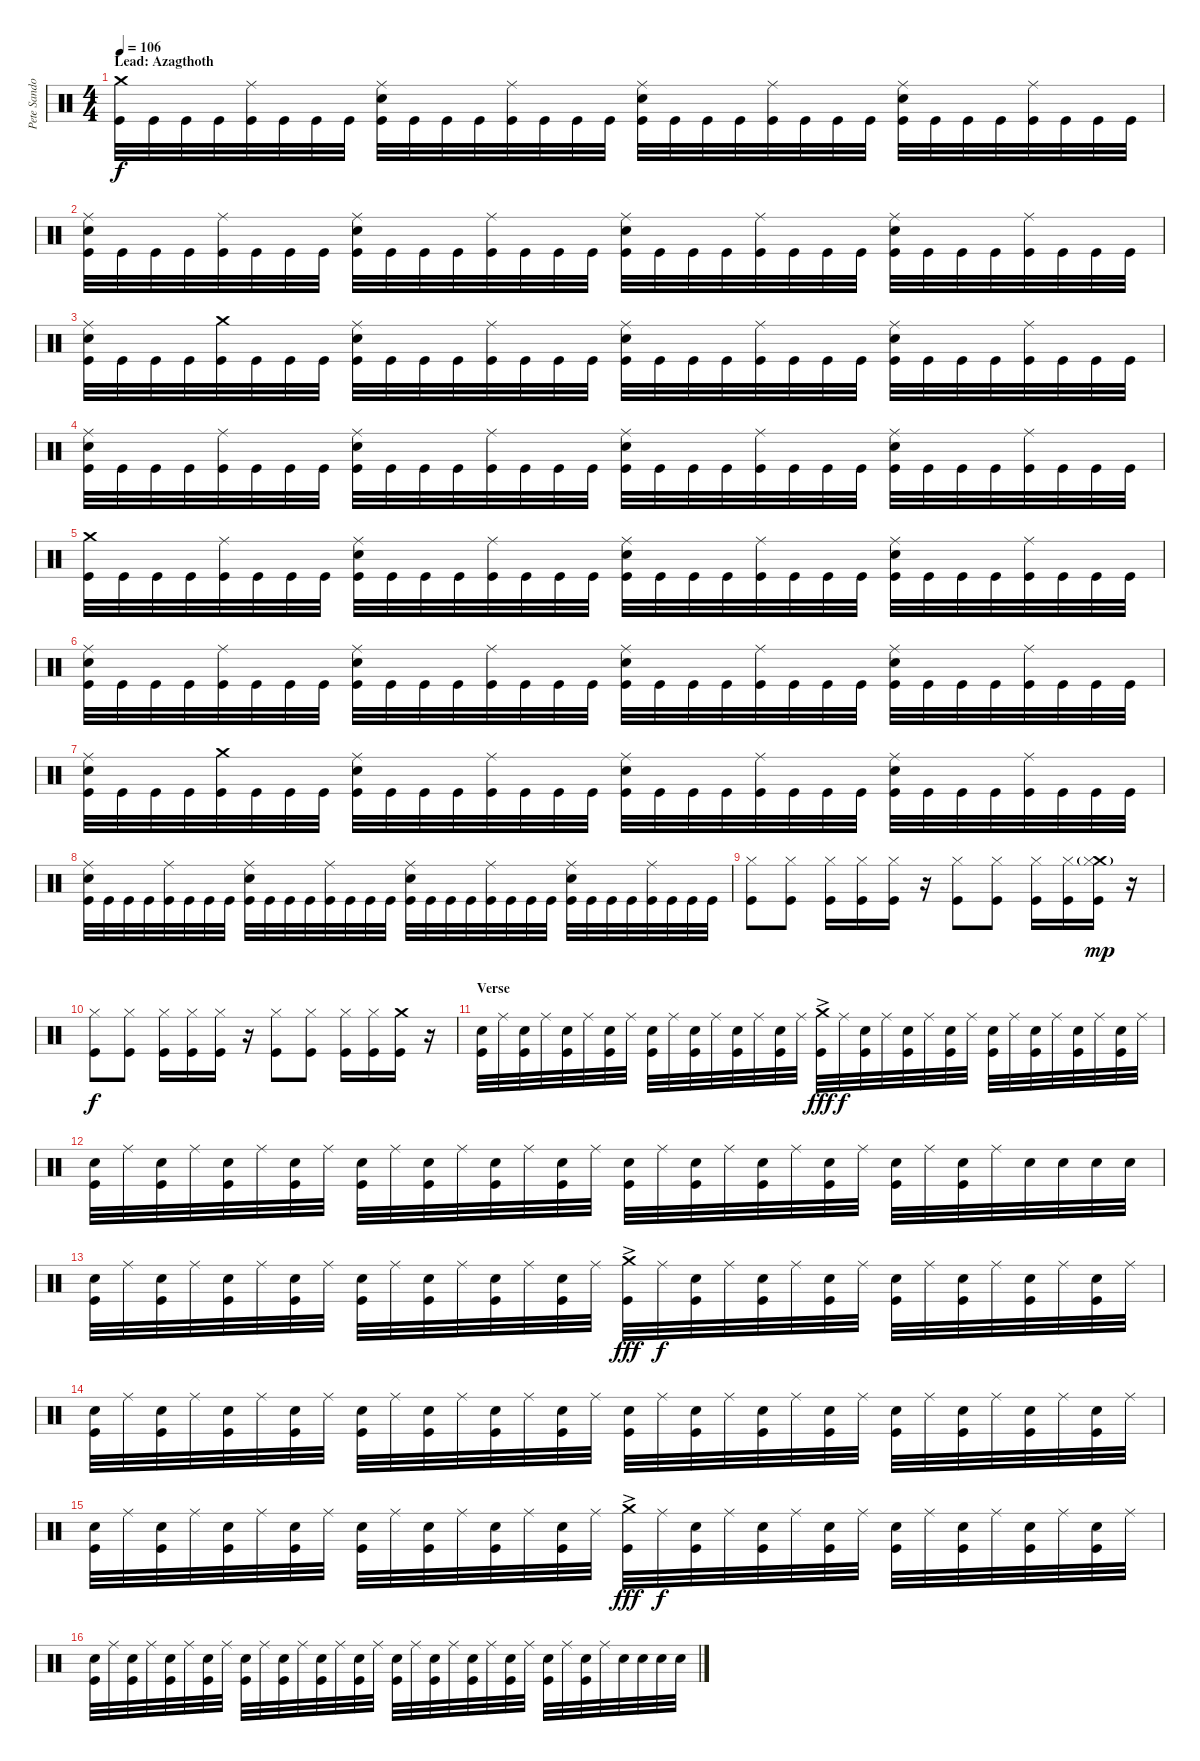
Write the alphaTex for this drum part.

\track ("Pete Sandoval" "Pete Sando") {instrument percussion}
\staff {score}
\articulation defaults
\ts (4 4)
\section ("" "Lead: Azagthoth")
\tempo 106
\clef neutral
\ks c
("Crash medium (hit)" "Kick (hit)").32{dy f} "Kick (hit)".32 "Kick (hit)".32 "Kick (hit)".32 ("Ride (middle)" "Kick (hit)").32 "Kick (hit)".32 "Kick (hit)".32 "Kick (hit)".32 ("Ride (middle)" "Electric Snare (hit)" "Kick (hit)").32 "Kick (hit)".32 "Kick (hit)".32 "Kick (hit)".32 ("Ride (middle)" "Kick (hit)").32 "Kick (hit)".32 "Kick (hit)".32 "Kick (hit)".32 ("Ride (middle)" "Electric Snare (hit)" "Kick (hit)").32 "Kick (hit)".32 "Kick (hit)".32 "Kick (hit)".32 ("Ride (middle)" "Kick (hit)").32 "Kick (hit)".32 "Kick (hit)".32 "Kick (hit)".32 ("Ride (middle)" "Electric Snare (hit)" "Kick (hit)").32 "Kick (hit)".32 "Kick (hit)".32 "Kick (hit)".32 ("Ride (middle)" "Kick (hit)").32 "Kick (hit)".32 "Kick (hit)".32 "Kick (hit)".32 |
("Ride (middle)" "Electric Snare (hit)" "Kick (hit)").32 "Kick (hit)".32 "Kick (hit)".32 "Kick (hit)".32 ("Ride (middle)" "Kick (hit)").32 "Kick (hit)".32 "Kick (hit)".32 "Kick (hit)".32 ("Ride (middle)" "Electric Snare (hit)" "Kick (hit)").32 "Kick (hit)".32 "Kick (hit)".32 "Kick (hit)".32 ("Ride (middle)" "Kick (hit)").32 "Kick (hit)".32 "Kick (hit)".32 "Kick (hit)".32 ("Ride (middle)" "Electric Snare (hit)" "Kick (hit)").32 "Kick (hit)".32 "Kick (hit)".32 "Kick (hit)".32 ("Ride (middle)" "Kick (hit)").32 "Kick (hit)".32 "Kick (hit)".32 "Kick (hit)".32 ("Ride (middle)" "Electric Snare (hit)" "Kick (hit)").32 "Kick (hit)".32 "Kick (hit)".32 "Kick (hit)".32 ("Ride (middle)" "Kick (hit)").32 "Kick (hit)".32 "Kick (hit)".32 "Kick (hit)".32 |
("Ride (middle)" "Electric Snare (hit)" "Kick (hit)").32 "Kick (hit)".32 "Kick (hit)".32 "Kick (hit)".32 ("Crash medium (hit)" "Kick (hit)").32 "Kick (hit)".32 "Kick (hit)".32 "Kick (hit)".32 ("Ride (middle)" "Electric Snare (hit)" "Kick (hit)").32 "Kick (hit)".32 "Kick (hit)".32 "Kick (hit)".32 ("Ride (middle)" "Kick (hit)").32 "Kick (hit)".32 "Kick (hit)".32 "Kick (hit)".32 ("Ride (middle)" "Electric Snare (hit)" "Kick (hit)").32 "Kick (hit)".32 "Kick (hit)".32 "Kick (hit)".32 ("Ride (middle)" "Kick (hit)").32 "Kick (hit)".32 "Kick (hit)".32 "Kick (hit)".32 ("Ride (middle)" "Electric Snare (hit)" "Kick (hit)").32 "Kick (hit)".32 "Kick (hit)".32 "Kick (hit)".32 ("Ride (middle)" "Kick (hit)").32 "Kick (hit)".32 "Kick (hit)".32 "Kick (hit)".32 |
("Ride (middle)" "Electric Snare (hit)" "Kick (hit)").32 "Kick (hit)".32 "Kick (hit)".32 "Kick (hit)".32 ("Ride (middle)" "Kick (hit)").32 "Kick (hit)".32 "Kick (hit)".32 "Kick (hit)".32 ("Ride (middle)" "Electric Snare (hit)" "Kick (hit)").32 "Kick (hit)".32 "Kick (hit)".32 "Kick (hit)".32 ("Ride (middle)" "Kick (hit)").32 "Kick (hit)".32 "Kick (hit)".32 "Kick (hit)".32 ("Ride (middle)" "Electric Snare (hit)" "Kick (hit)").32 "Kick (hit)".32 "Kick (hit)".32 "Kick (hit)".32 ("Ride (middle)" "Kick (hit)").32 "Kick (hit)".32 "Kick (hit)".32 "Kick (hit)".32 ("Ride (middle)" "Electric Snare (hit)" "Kick (hit)").32 "Kick (hit)".32 "Kick (hit)".32 "Kick (hit)".32 ("Ride (middle)" "Kick (hit)").32 "Kick (hit)".32 "Kick (hit)".32 "Kick (hit)".32 |
("Crash medium (hit)" "Kick (hit)").32 "Kick (hit)".32 "Kick (hit)".32 "Kick (hit)".32 ("Ride (middle)" "Kick (hit)").32 "Kick (hit)".32 "Kick (hit)".32 "Kick (hit)".32 ("Ride (middle)" "Electric Snare (hit)" "Kick (hit)").32 "Kick (hit)".32 "Kick (hit)".32 "Kick (hit)".32 ("Ride (middle)" "Kick (hit)").32 "Kick (hit)".32 "Kick (hit)".32 "Kick (hit)".32 ("Ride (middle)" "Electric Snare (hit)" "Kick (hit)").32 "Kick (hit)".32 "Kick (hit)".32 "Kick (hit)".32 ("Ride (middle)" "Kick (hit)").32 "Kick (hit)".32 "Kick (hit)".32 "Kick (hit)".32 ("Ride (middle)" "Electric Snare (hit)" "Kick (hit)").32 "Kick (hit)".32 "Kick (hit)".32 "Kick (hit)".32 ("Ride (middle)" "Kick (hit)").32 "Kick (hit)".32 "Kick (hit)".32 "Kick (hit)".32 |
("Ride (middle)" "Electric Snare (hit)" "Kick (hit)").32 "Kick (hit)".32 "Kick (hit)".32 "Kick (hit)".32 ("Ride (middle)" "Kick (hit)").32 "Kick (hit)".32 "Kick (hit)".32 "Kick (hit)".32 ("Ride (middle)" "Electric Snare (hit)" "Kick (hit)").32 "Kick (hit)".32 "Kick (hit)".32 "Kick (hit)".32 ("Ride (middle)" "Kick (hit)").32 "Kick (hit)".32 "Kick (hit)".32 "Kick (hit)".32 ("Ride (middle)" "Electric Snare (hit)" "Kick (hit)").32 "Kick (hit)".32 "Kick (hit)".32 "Kick (hit)".32 ("Ride (middle)" "Kick (hit)").32 "Kick (hit)".32 "Kick (hit)".32 "Kick (hit)".32 ("Ride (middle)" "Electric Snare (hit)" "Kick (hit)").32 "Kick (hit)".32 "Kick (hit)".32 "Kick (hit)".32 ("Ride (middle)" "Kick (hit)").32 "Kick (hit)".32 "Kick (hit)".32 "Kick (hit)".32 |
("Ride (middle)" "Electric Snare (hit)" "Kick (hit)").32 "Kick (hit)".32 "Kick (hit)".32 "Kick (hit)".32 ("Crash medium (hit)" "Kick (hit)").32 "Kick (hit)".32 "Kick (hit)".32 "Kick (hit)".32 ("Ride (middle)" "Electric Snare (hit)" "Kick (hit)").32 "Kick (hit)".32 "Kick (hit)".32 "Kick (hit)".32 ("Ride (middle)" "Kick (hit)").32 "Kick (hit)".32 "Kick (hit)".32 "Kick (hit)".32 ("Ride (middle)" "Electric Snare (hit)" "Kick (hit)").32 "Kick (hit)".32 "Kick (hit)".32 "Kick (hit)".32 ("Ride (middle)" "Kick (hit)").32 "Kick (hit)".32 "Kick (hit)".32 "Kick (hit)".32 ("Ride (middle)" "Electric Snare (hit)" "Kick (hit)").32 "Kick (hit)".32 "Kick (hit)".32 "Kick (hit)".32 ("Ride (middle)" "Kick (hit)").32 "Kick (hit)".32 "Kick (hit)".32 "Kick (hit)".32 |
("Ride (middle)" "Electric Snare (hit)" "Kick (hit)").32 "Kick (hit)".32 "Kick (hit)".32 "Kick (hit)".32 ("Ride (middle)" "Kick (hit)").32 "Kick (hit)".32 "Kick (hit)".32 "Kick (hit)".32 ("Ride (middle)" "Electric Snare (hit)" "Kick (hit)").32 "Kick (hit)".32 "Kick (hit)".32 "Kick (hit)".32 ("Ride (middle)" "Kick (hit)").32 "Kick (hit)".32 "Kick (hit)".32 "Kick (hit)".32 ("Ride (middle)" "Electric Snare (hit)" "Kick (hit)").32 "Kick (hit)".32 "Kick (hit)".32 "Kick (hit)".32 ("Ride (middle)" "Kick (hit)").32 "Kick (hit)".32 "Kick (hit)".32 "Kick (hit)".32 ("Ride (middle)" "Electric Snare (hit)" "Kick (hit)").32 "Kick (hit)".32 "Kick (hit)".32 "Kick (hit)".32 ("Ride (middle)" "Kick (hit)").32 "Kick (hit)".32 "Kick (hit)".32 "Kick (hit)".32 |
("Hi-Hat (closed)" "Kick (hit)").8 ("Hi-Hat (closed)" "Kick (hit)").8 ("Hi-Hat (closed)" "Kick (hit)").16 ("Hi-Hat (closed)" "Kick (hit)").16 ("Hi-Hat (closed)" "Kick (hit)").16 r.16 ("Hi-Hat (closed)" "Kick (hit)").8 ("Hi-Hat (closed)" "Kick (hit)").8 ("Hi-Hat (closed)" "Kick (hit)").16 ("Hi-Hat (closed)" "Kick (hit)").16 ("Crash medium (hit)"{g} "Hi-Hat (closed)" "Kick (hit)").16{dy mp} r.16 |
("Hi-Hat (closed)" "Kick (hit)").8{dy f} ("Hi-Hat (closed)" "Kick (hit)").8 ("Hi-Hat (closed)" "Kick (hit)").16 ("Hi-Hat (closed)" "Kick (hit)").16 ("Hi-Hat (closed)" "Kick (hit)").16 r.16 ("Hi-Hat (closed)" "Kick (hit)").8 ("Hi-Hat (closed)" "Kick (hit)").8 ("Hi-Hat (closed)" "Kick (hit)").16 ("Hi-Hat (closed)" "Kick (hit)").16 ("Crash medium (hit)" "Kick (hit)").16 r.16 |
\section ("" "Verse")
("Electric Snare (hit)" "Kick (hit)").32 "Ride (middle)".32 ("Electric Snare (hit)" "Kick (hit)").32 "Ride (middle)".32 ("Electric Snare (hit)" "Kick (hit)").32 "Ride (middle)".32 ("Electric Snare (hit)" "Kick (hit)").32 "Ride (middle)".32 ("Electric Snare (hit)" "Kick (hit)").32 "Ride (middle)".32 ("Electric Snare (hit)" "Kick (hit)").32 "Ride (middle)".32 ("Electric Snare (hit)" "Kick (hit)").32 "Ride (middle)".32 ("Electric Snare (hit)" "Kick (hit)").32 "Ride (middle)".32 ("Crash medium (hit)"{ac} "Kick (hit)").32{dy fff} "Ride (middle)".32{dy f} ("Electric Snare (hit)" "Kick (hit)").32 "Ride (middle)".32 ("Electric Snare (hit)" "Kick (hit)").32 "Ride (middle)".32 ("Electric Snare (hit)" "Kick (hit)").32 "Ride (middle)".32 ("Electric Snare (hit)" "Kick (hit)").32 "Ride (middle)".32 ("Electric Snare (hit)" "Kick (hit)").32 "Ride (middle)".32 ("Electric Snare (hit)" "Kick (hit)").32 "Ride (middle)".32 ("Electric Snare (hit)" "Kick (hit)").32 "Ride (middle)".32 |
("Electric Snare (hit)" "Kick (hit)").32 "Ride (middle)".32 ("Electric Snare (hit)" "Kick (hit)").32 "Ride (middle)".32 ("Electric Snare (hit)" "Kick (hit)").32 "Ride (middle)".32 ("Electric Snare (hit)" "Kick (hit)").32 "Ride (middle)".32 ("Electric Snare (hit)" "Kick (hit)").32 "Ride (middle)".32 ("Electric Snare (hit)" "Kick (hit)").32 "Ride (middle)".32 ("Electric Snare (hit)" "Kick (hit)").32 "Ride (middle)".32 ("Electric Snare (hit)" "Kick (hit)").32 "Ride (middle)".32 ("Electric Snare (hit)" "Kick (hit)").32 "Ride (middle)".32 ("Electric Snare (hit)" "Kick (hit)").32 "Ride (middle)".32 ("Electric Snare (hit)" "Kick (hit)").32 "Ride (middle)".32 ("Electric Snare (hit)" "Kick (hit)").32 "Ride (middle)".32 ("Electric Snare (hit)" "Kick (hit)").32 "Ride (middle)".32 ("Electric Snare (hit)" "Kick (hit)").32 "Ride (middle)".32 "Electric Snare (hit)".32 "Electric Snare (hit)".32 "Electric Snare (hit)".32 "Electric Snare (hit)".32 |
("Electric Snare (hit)" "Kick (hit)").32 "Ride (middle)".32 ("Electric Snare (hit)" "Kick (hit)").32 "Ride (middle)".32 ("Electric Snare (hit)" "Kick (hit)").32 "Ride (middle)".32 ("Electric Snare (hit)" "Kick (hit)").32 "Ride (middle)".32 ("Electric Snare (hit)" "Kick (hit)").32 "Ride (middle)".32 ("Electric Snare (hit)" "Kick (hit)").32 "Ride (middle)".32 ("Electric Snare (hit)" "Kick (hit)").32 "Ride (middle)".32 ("Electric Snare (hit)" "Kick (hit)").32 "Ride (middle)".32 ("Crash medium (hit)"{ac} "Kick (hit)").32{dy fff} "Ride (middle)".32{dy f} ("Electric Snare (hit)" "Kick (hit)").32 "Ride (middle)".32 ("Electric Snare (hit)" "Kick (hit)").32 "Ride (middle)".32 ("Electric Snare (hit)" "Kick (hit)").32 "Ride (middle)".32 ("Electric Snare (hit)" "Kick (hit)").32 "Ride (middle)".32 ("Electric Snare (hit)" "Kick (hit)").32 "Ride (middle)".32 ("Electric Snare (hit)" "Kick (hit)").32 "Ride (middle)".32 ("Electric Snare (hit)" "Kick (hit)").32 "Ride (middle)".32 |
("Electric Snare (hit)" "Kick (hit)").32 "Ride (middle)".32 ("Electric Snare (hit)" "Kick (hit)").32 "Ride (middle)".32 ("Electric Snare (hit)" "Kick (hit)").32 "Ride (middle)".32 ("Electric Snare (hit)" "Kick (hit)").32 "Ride (middle)".32 ("Electric Snare (hit)" "Kick (hit)").32 "Ride (middle)".32 ("Electric Snare (hit)" "Kick (hit)").32 "Ride (middle)".32 ("Electric Snare (hit)" "Kick (hit)").32 "Ride (middle)".32 ("Electric Snare (hit)" "Kick (hit)").32 "Ride (middle)".32 ("Electric Snare (hit)" "Kick (hit)").32 "Ride (middle)".32 ("Electric Snare (hit)" "Kick (hit)").32 "Ride (middle)".32 ("Electric Snare (hit)" "Kick (hit)").32 "Ride (middle)".32 ("Electric Snare (hit)" "Kick (hit)").32 "Ride (middle)".32 ("Electric Snare (hit)" "Kick (hit)").32 "Ride (middle)".32 ("Electric Snare (hit)" "Kick (hit)").32 "Ride (middle)".32 ("Electric Snare (hit)" "Kick (hit)").32 "Ride (middle)".32 ("Electric Snare (hit)" "Kick (hit)").32 "Ride (middle)".32 |
("Electric Snare (hit)" "Kick (hit)").32 "Ride (middle)".32 ("Electric Snare (hit)" "Kick (hit)").32 "Ride (middle)".32 ("Electric Snare (hit)" "Kick (hit)").32 "Ride (middle)".32 ("Electric Snare (hit)" "Kick (hit)").32 "Ride (middle)".32 ("Electric Snare (hit)" "Kick (hit)").32 "Ride (middle)".32 ("Electric Snare (hit)" "Kick (hit)").32 "Ride (middle)".32 ("Electric Snare (hit)" "Kick (hit)").32 "Ride (middle)".32 ("Electric Snare (hit)" "Kick (hit)").32 "Ride (middle)".32 ("Crash medium (hit)"{ac} "Kick (hit)").32{dy fff} "Ride (middle)".32{dy f} ("Electric Snare (hit)" "Kick (hit)").32 "Ride (middle)".32 ("Electric Snare (hit)" "Kick (hit)").32 "Ride (middle)".32 ("Electric Snare (hit)" "Kick (hit)").32 "Ride (middle)".32 ("Electric Snare (hit)" "Kick (hit)").32 "Ride (middle)".32 ("Electric Snare (hit)" "Kick (hit)").32 "Ride (middle)".32 ("Electric Snare (hit)" "Kick (hit)").32 "Ride (middle)".32 ("Electric Snare (hit)" "Kick (hit)").32 "Ride (middle)".32 |
("Electric Snare (hit)" "Kick (hit)").32 "Ride (middle)".32 ("Electric Snare (hit)" "Kick (hit)").32 "Ride (middle)".32 ("Electric Snare (hit)" "Kick (hit)").32 "Ride (middle)".32 ("Electric Snare (hit)" "Kick (hit)").32 "Ride (middle)".32 ("Electric Snare (hit)" "Kick (hit)").32 "Ride (middle)".32 ("Electric Snare (hit)" "Kick (hit)").32 "Ride (middle)".32 ("Electric Snare (hit)" "Kick (hit)").32 "Ride (middle)".32 ("Electric Snare (hit)" "Kick (hit)").32 "Ride (middle)".32 ("Electric Snare (hit)" "Kick (hit)").32 "Ride (middle)".32 ("Electric Snare (hit)" "Kick (hit)").32 "Ride (middle)".32 ("Electric Snare (hit)" "Kick (hit)").32 "Ride (middle)".32 ("Electric Snare (hit)" "Kick (hit)").32 "Ride (middle)".32 ("Electric Snare (hit)" "Kick (hit)").32 "Ride (middle)".32 ("Electric Snare (hit)" "Kick (hit)").32 "Ride (middle)".32 "Electric Snare (hit)".32 "Electric Snare (hit)".32 "Electric Snare (hit)".32 "Electric Snare (hit)".32
